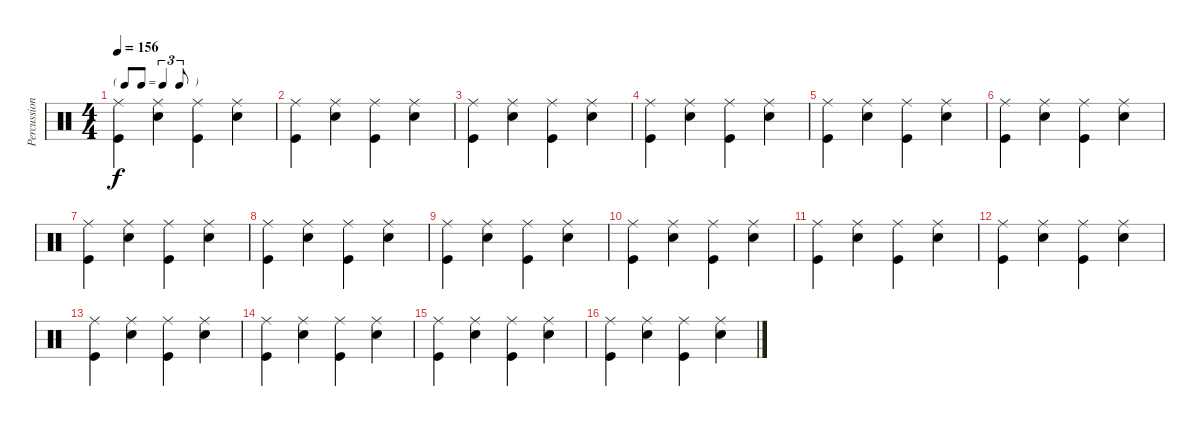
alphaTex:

\track ("Percussion" "Percussion") {instrument percussion}
\staff {score}
\articulation defaults
\ts (4 4)
\tf triplet8th
\tempo 156
\clef neutral
\ks c
("Ride (middle)" "Kick (hit)").4{dy f} ("Snare (hit) 2" "Ride (middle)").4 ("Ride (middle)" "Kick (hit)").4 ("Snare (hit) 2" "Ride (middle)").4 |
("Ride (middle)" "Kick (hit)").4 ("Snare (hit) 2" "Ride (middle)").4 ("Ride (middle)" "Kick (hit)").4 ("Snare (hit) 2" "Ride (middle)").4 |
("Ride (middle)" "Kick (hit)").4 ("Snare (hit) 2" "Ride (middle)").4 ("Ride (middle)" "Kick (hit)").4 ("Snare (hit) 2" "Ride (middle)").4 |
("Ride (middle)" "Kick (hit)").4 ("Snare (hit) 2" "Ride (middle)").4 ("Ride (middle)" "Kick (hit)").4 ("Snare (hit) 2" "Ride (middle)").4 |
("Ride (middle)" "Kick (hit)").4 ("Snare (hit) 2" "Ride (middle)").4 ("Ride (middle)" "Kick (hit)").4 ("Snare (hit) 2" "Ride (middle)").4 |
("Ride (middle)" "Kick (hit)").4 ("Snare (hit) 2" "Ride (middle)").4 ("Ride (middle)" "Kick (hit)").4 ("Snare (hit) 2" "Ride (middle)").4 |
("Ride (middle)" "Kick (hit)").4 ("Snare (hit) 2" "Ride (middle)").4 ("Ride (middle)" "Kick (hit)").4 ("Snare (hit) 2" "Ride (middle)").4 |
("Ride (middle)" "Kick (hit)").4 ("Snare (hit) 2" "Ride (middle)").4 ("Ride (middle)" "Kick (hit)").4 ("Snare (hit) 2" "Ride (middle)").4 |
("Ride (middle)" "Kick (hit)").4 ("Snare (hit) 2" "Ride (middle)").4 ("Ride (middle)" "Kick (hit)").4 ("Snare (hit) 2" "Ride (middle)").4 |
("Ride (middle)" "Kick (hit)").4 ("Snare (hit) 2" "Ride (middle)").4 ("Ride (middle)" "Kick (hit)").4 ("Snare (hit) 2" "Ride (middle)").4 |
("Ride (middle)" "Kick (hit)").4 ("Snare (hit) 2" "Ride (middle)").4 ("Ride (middle)" "Kick (hit)").4 ("Snare (hit) 2" "Ride (middle)").4 |
("Ride (middle)" "Kick (hit)").4 ("Snare (hit) 2" "Ride (middle)").4 ("Ride (middle)" "Kick (hit)").4 ("Snare (hit) 2" "Ride (middle)").4 |
("Ride (middle)" "Kick (hit)").4 ("Snare (hit) 2" "Ride (middle)").4 ("Ride (middle)" "Kick (hit)").4 ("Snare (hit) 2" "Ride (middle)").4 |
("Ride (middle)" "Kick (hit)").4 ("Snare (hit) 2" "Ride (middle)").4 ("Ride (middle)" "Kick (hit)").4 ("Snare (hit) 2" "Ride (middle)").4 |
("Ride (middle)" "Kick (hit)").4 ("Snare (hit) 2" "Ride (middle)").4 ("Ride (middle)" "Kick (hit)").4 ("Snare (hit) 2" "Ride (middle)").4 |
("Ride (middle)" "Kick (hit)").4 ("Snare (hit) 2" "Ride (middle)").4 ("Ride (middle)" "Kick (hit)").4 ("Snare (hit) 2" "Ride (middle)").4
